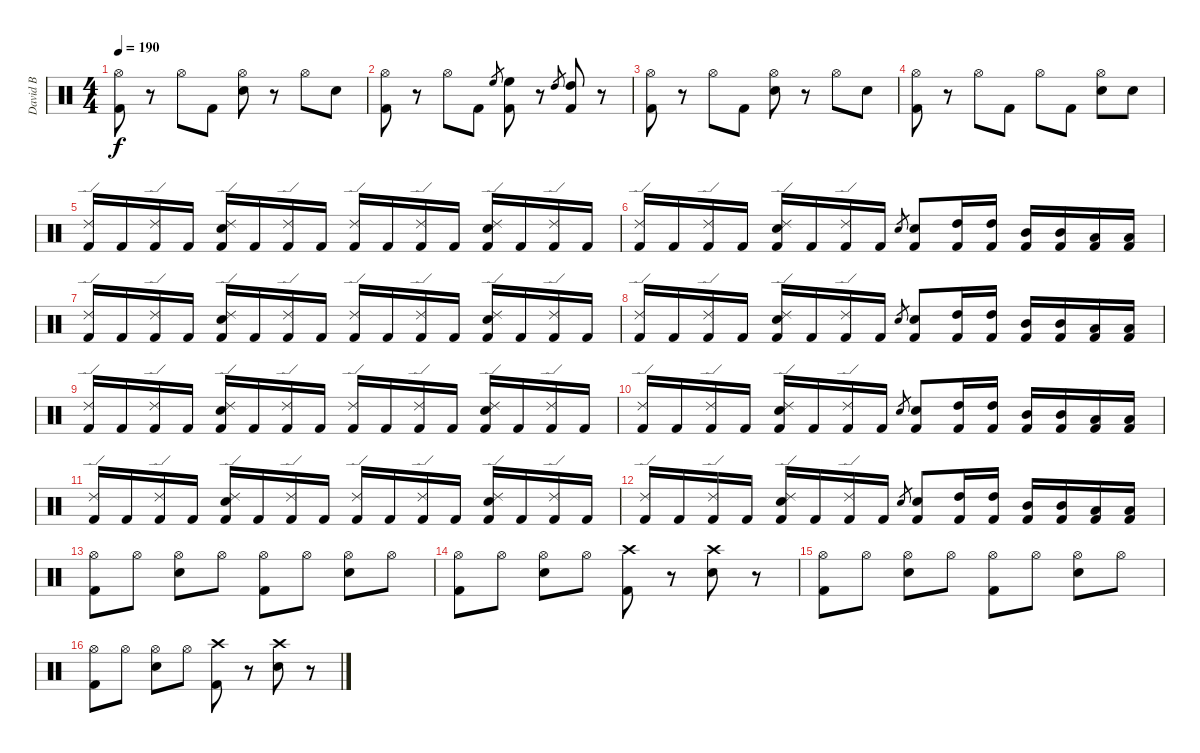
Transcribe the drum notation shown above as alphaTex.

\track ("David B" "David B") {instrument percussion}
\staff {score}
\articulation defaults
\ts (4 4)
\tempo 190
\clef neutral
\ks c
("Hi-Hat (open)" "Kick (hit) 2").8{dy f} r.8 "Hi-Hat (open)".8 "Kick (hit) 2".8 ("Hi-Hat (open)" "Electric Snare (hit)").8 r.8 "Hi-Hat (open)".8 "Electric Snare (hit)".8 |
("Hi-Hat (open)" "Kick (hit) 2").8 r.8 "Hi-Hat (open)".8 "Kick (hit) 2".8 "High Floor Tom (hit)".8{gr} ("High Floor Tom (hit)" "Kick (hit) 2").8 r.8 "High Tom (hit)".8{gr} ("High Tom (hit)" "Kick (hit) 2").8 r.8 |
("Hi-Hat (open)" "Kick (hit) 2").8 r.8 "Hi-Hat (open)".8 "Kick (hit) 2".8 ("Hi-Hat (open)" "Electric Snare (hit)").8 r.8 "Hi-Hat (open)".8 "Electric Snare (hit)".8 |
("Hi-Hat (open)" "Kick (hit) 2").8 r.8 "Hi-Hat (open)".8 "Kick (hit) 2".8 "Hi-Hat (open)".8 "Kick (hit) 2".8 ("Hi-Hat (open)" "Electric Snare (hit)").8 "Electric Snare (hit)".8 |
("Ride (edge) 2" "Kick (hit) 2").16 "Kick (hit) 2".16 ("Ride (edge) 2" "Kick (hit) 2").16 "Kick (hit) 2".16 ("Ride (edge) 2" "Electric Snare (hit)" "Kick (hit) 2").16 "Kick (hit) 2".16 ("Ride (edge) 2" "Kick (hit) 2").16 "Kick (hit) 2".16 ("Ride (edge) 2" "Kick (hit) 2").16 "Kick (hit) 2".16 ("Ride (edge) 2" "Kick (hit) 2").16 "Kick (hit) 2".16 ("Ride (edge) 2" "Electric Snare (hit)" "Kick (hit) 2").16 "Kick (hit) 2".16 ("Ride (edge) 2" "Kick (hit) 2").16 "Kick (hit) 2".16 |
("Ride (edge) 2" "Kick (hit) 2").16 "Kick (hit) 2".16 ("Ride (edge) 2" "Kick (hit) 2").16 "Kick (hit) 2".16 ("Ride (edge) 2" "Electric Snare (hit)" "Kick (hit) 2").16 "Kick (hit) 2".16 ("Ride (edge) 2" "Kick (hit) 2").16 "Kick (hit) 2".16 "Electric Snare (hit)".8{gr} ("Electric Snare (hit)" "Kick (hit) 2").8 ("High Tom (hit)" "Kick (hit) 2").16 ("High Tom (hit)" "Kick (hit) 2").16 ("Mid Tom (hit)" "Kick (hit) 2").16 ("Mid Tom (hit)" "Kick (hit) 2").16 ("Low Tom (hit)" "Kick (hit) 2").16 ("Low Tom (hit)" "Kick (hit) 2").16 |
("Ride (edge) 2" "Kick (hit) 2").16 "Kick (hit) 2".16 ("Ride (edge) 2" "Kick (hit) 2").16 "Kick (hit) 2".16 ("Ride (edge) 2" "Electric Snare (hit)" "Kick (hit) 2").16 "Kick (hit) 2".16 ("Ride (edge) 2" "Kick (hit) 2").16 "Kick (hit) 2".16 ("Ride (edge) 2" "Kick (hit) 2").16 "Kick (hit) 2".16 ("Ride (edge) 2" "Kick (hit) 2").16 "Kick (hit) 2".16 ("Ride (edge) 2" "Electric Snare (hit)" "Kick (hit) 2").16 "Kick (hit) 2".16 ("Ride (edge) 2" "Kick (hit) 2").16 "Kick (hit) 2".16 |
("Ride (edge) 2" "Kick (hit) 2").16 "Kick (hit) 2".16 ("Ride (edge) 2" "Kick (hit) 2").16 "Kick (hit) 2".16 ("Ride (edge) 2" "Electric Snare (hit)" "Kick (hit) 2").16 "Kick (hit) 2".16 ("Ride (edge) 2" "Kick (hit) 2").16 "Kick (hit) 2".16 "Electric Snare (hit)".8{gr} ("Electric Snare (hit)" "Kick (hit) 2").8 ("High Tom (hit)" "Kick (hit) 2").16 ("High Tom (hit)" "Kick (hit) 2").16 ("Mid Tom (hit)" "Kick (hit) 2").16 ("Mid Tom (hit)" "Kick (hit) 2").16 ("Low Tom (hit)" "Kick (hit) 2").16 ("Low Tom (hit)" "Kick (hit) 2").16 |
("Ride (edge) 2" "Kick (hit) 2").16 "Kick (hit) 2".16 ("Ride (edge) 2" "Kick (hit) 2").16 "Kick (hit) 2".16 ("Ride (edge) 2" "Electric Snare (hit)" "Kick (hit) 2").16 "Kick (hit) 2".16 ("Ride (edge) 2" "Kick (hit) 2").16 "Kick (hit) 2".16 ("Ride (edge) 2" "Kick (hit) 2").16 "Kick (hit) 2".16 ("Ride (edge) 2" "Kick (hit) 2").16 "Kick (hit) 2".16 ("Ride (edge) 2" "Electric Snare (hit)" "Kick (hit) 2").16 "Kick (hit) 2".16 ("Ride (edge) 2" "Kick (hit) 2").16 "Kick (hit) 2".16 |
("Ride (edge) 2" "Kick (hit) 2").16 "Kick (hit) 2".16 ("Ride (edge) 2" "Kick (hit) 2").16 "Kick (hit) 2".16 ("Ride (edge) 2" "Electric Snare (hit)" "Kick (hit) 2").16 "Kick (hit) 2".16 ("Ride (edge) 2" "Kick (hit) 2").16 "Kick (hit) 2".16 "Electric Snare (hit)".8{gr} ("Electric Snare (hit)" "Kick (hit) 2").8 ("High Tom (hit)" "Kick (hit) 2").16 ("High Tom (hit)" "Kick (hit) 2").16 ("Mid Tom (hit)" "Kick (hit) 2").16 ("Mid Tom (hit)" "Kick (hit) 2").16 ("Low Tom (hit)" "Kick (hit) 2").16 ("Low Tom (hit)" "Kick (hit) 2").16 |
("Ride (edge) 2" "Kick (hit) 2").16 "Kick (hit) 2".16 ("Ride (edge) 2" "Kick (hit) 2").16 "Kick (hit) 2".16 ("Ride (edge) 2" "Electric Snare (hit)" "Kick (hit) 2").16 "Kick (hit) 2".16 ("Ride (edge) 2" "Kick (hit) 2").16 "Kick (hit) 2".16 ("Ride (edge) 2" "Kick (hit) 2").16 "Kick (hit) 2".16 ("Ride (edge) 2" "Kick (hit) 2").16 "Kick (hit) 2".16 ("Ride (edge) 2" "Electric Snare (hit)" "Kick (hit) 2").16 "Kick (hit) 2".16 ("Ride (edge) 2" "Kick (hit) 2").16 "Kick (hit) 2".16 |
("Ride (edge) 2" "Kick (hit) 2").16 "Kick (hit) 2".16 ("Ride (edge) 2" "Kick (hit) 2").16 "Kick (hit) 2".16 ("Ride (edge) 2" "Electric Snare (hit)" "Kick (hit) 2").16 "Kick (hit) 2".16 ("Ride (edge) 2" "Kick (hit) 2").16 "Kick (hit) 2".16 "Electric Snare (hit)".8{gr} ("Electric Snare (hit)" "Kick (hit) 2").8 ("High Tom (hit)" "Kick (hit) 2").16 ("High Tom (hit)" "Kick (hit) 2").16 ("Mid Tom (hit)" "Kick (hit) 2").16 ("Mid Tom (hit)" "Kick (hit) 2").16 ("Low Tom (hit)" "Kick (hit) 2").16 ("Low Tom (hit)" "Kick (hit) 2").16 |
("Hi-Hat (open)" "Kick (hit) 2").8 "Hi-Hat (open)".8 ("Hi-Hat (open)" "Electric Snare (hit)").8 "Hi-Hat (open)".8 ("Hi-Hat (open)" "Kick (hit) 2").8 "Hi-Hat (open)".8 ("Hi-Hat (open)" "Electric Snare (hit)").8 "Hi-Hat (open)".8 |
("Hi-Hat (open)" "Kick (hit) 2").8 "Hi-Hat (open)".8 ("Hi-Hat (open)" "Electric Snare (hit)").8 "Hi-Hat (open)".8 ("Crash high (hit)" "Kick (hit) 2").8 r.8 ("Crash high (hit)" "Electric Snare (hit)").8 r.8 |
("Hi-Hat (open)" "Kick (hit) 2").8 "Hi-Hat (open)".8 ("Hi-Hat (open)" "Electric Snare (hit)").8 "Hi-Hat (open)".8 ("Hi-Hat (open)" "Kick (hit) 2").8 "Hi-Hat (open)".8 ("Hi-Hat (open)" "Electric Snare (hit)").8 "Hi-Hat (open)".8 |
("Hi-Hat (open)" "Kick (hit) 2").8 "Hi-Hat (open)".8 ("Hi-Hat (open)" "Electric Snare (hit)").8 "Hi-Hat (open)".8 ("Crash high (hit)" "Kick (hit) 2").8 r.8 ("Crash high (hit)" "Electric Snare (hit)").8 r.8
